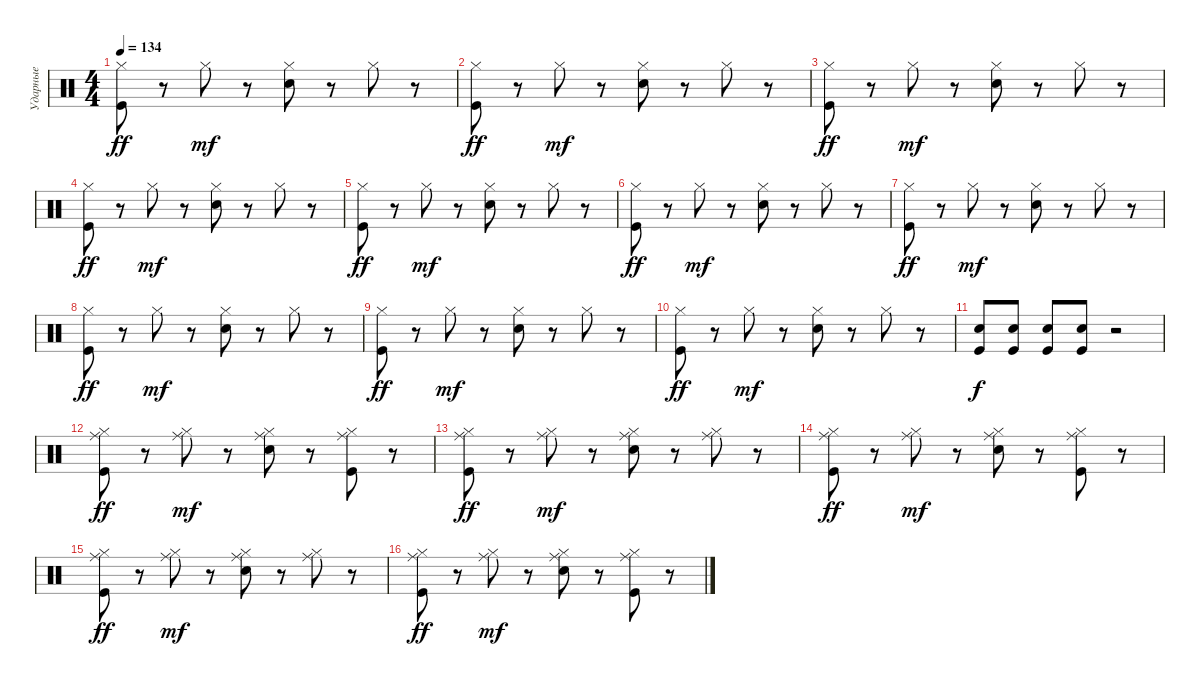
\track ("Ударные" "Ударные") {instrument percussion}
\staff {score}
\articulation defaults
\ts (4 4)
\tempo 134
\clef neutral
\ks c
("Kick (hit)" "Hi-Hat (closed)").8{dy ff} r.8 "Hi-Hat (closed)".8{dy mf} r.8 ("Hi-Hat (closed)" "Snare (hit) 2").8 r.8 "Hi-Hat (closed)".8 r.8 |
("Kick (hit)" "Hi-Hat (closed)").8{dy ff} r.8 "Hi-Hat (closed)".8{dy mf} r.8 ("Hi-Hat (closed)" "Snare (hit) 2").8 r.8 "Hi-Hat (closed)".8 r.8 |
("Kick (hit)" "Hi-Hat (closed)").8{dy ff} r.8 "Hi-Hat (closed)".8{dy mf} r.8 ("Hi-Hat (closed)" "Snare (hit) 2").8 r.8 "Hi-Hat (closed)".8 r.8 |
("Kick (hit)" "Hi-Hat (closed)").8{dy ff} r.8 "Hi-Hat (closed)".8{dy mf} r.8 ("Hi-Hat (closed)" "Snare (hit) 2").8 r.8 "Hi-Hat (closed)".8 r.8 |
("Kick (hit)" "Hi-Hat (closed)").8{dy ff} r.8 "Hi-Hat (closed)".8{dy mf} r.8 ("Hi-Hat (closed)" "Snare (hit) 2").8 r.8 "Hi-Hat (closed)".8 r.8 |
("Kick (hit)" "Hi-Hat (closed)").8{dy ff} r.8 "Hi-Hat (closed)".8{dy mf} r.8 ("Hi-Hat (closed)" "Snare (hit) 2").8 r.8 "Hi-Hat (closed)".8 r.8 |
("Kick (hit)" "Hi-Hat (closed)").8{dy ff} r.8 "Hi-Hat (closed)".8{dy mf} r.8 ("Hi-Hat (closed)" "Snare (hit) 2").8 r.8 "Hi-Hat (closed)".8 r.8 |
("Kick (hit)" "Hi-Hat (closed)").8{dy ff} r.8 "Hi-Hat (closed)".8{dy mf} r.8 ("Hi-Hat (closed)" "Snare (hit) 2").8 r.8 "Hi-Hat (closed)".8 r.8 |
("Kick (hit)" "Hi-Hat (closed)").8{dy ff} r.8 "Hi-Hat (closed)".8{dy mf} r.8 ("Hi-Hat (closed)" "Snare (hit) 2").8 r.8 "Hi-Hat (closed)".8 r.8 |
("Kick (hit)" "Hi-Hat (closed)").8{dy ff} r.8 "Hi-Hat (closed)".8{dy mf} r.8 ("Hi-Hat (closed)" "Snare (hit) 2").8 r.8 "Hi-Hat (closed)".8 r.8 |
("Kick (hit)" "Snare (hit) 2").8{dy f} ("Kick (hit)" "Snare (hit) 2").8 ("Kick (hit)" "Snare (hit) 2").8 ("Kick (hit)" "Snare (hit) 2").8 r.2 |
("Kick (hit)" "Hi-Hat (closed)" "Ride (middle)").8{dy ff} r.8 ("Hi-Hat (closed)" "Ride (middle)").8{dy mf} r.8 ("Hi-Hat (closed)" "Snare (hit) 2" "Ride (middle)").8 r.8 ("Hi-Hat (closed)" "Kick (hit)" "Ride (middle)").8 r.8 |
("Kick (hit)" "Hi-Hat (closed)" "Ride (middle)").8{dy ff} r.8 ("Hi-Hat (closed)" "Ride (middle)").8{dy mf} r.8 ("Hi-Hat (closed)" "Snare (hit) 2" "Ride (middle)").8 r.8 ("Hi-Hat (closed)" "Ride (middle)").8 r.8 |
("Kick (hit)" "Hi-Hat (closed)" "Ride (middle)").8{dy ff} r.8 ("Hi-Hat (closed)" "Ride (middle)").8{dy mf} r.8 ("Hi-Hat (closed)" "Snare (hit) 2" "Ride (middle)").8 r.8 ("Hi-Hat (closed)" "Kick (hit)" "Ride (middle)").8 r.8 |
("Kick (hit)" "Hi-Hat (closed)" "Ride (middle)").8{dy ff} r.8 ("Hi-Hat (closed)" "Ride (middle)").8{dy mf} r.8 ("Hi-Hat (closed)" "Snare (hit) 2" "Ride (middle)").8 r.8 ("Hi-Hat (closed)" "Ride (middle)").8 r.8 |
("Kick (hit)" "Hi-Hat (closed)" "Ride (middle)").8{dy ff} r.8 ("Hi-Hat (closed)" "Ride (middle)").8{dy mf} r.8 ("Hi-Hat (closed)" "Snare (hit) 2" "Ride (middle)").8 r.8 ("Hi-Hat (closed)" "Kick (hit)" "Ride (middle)").8 r.8
